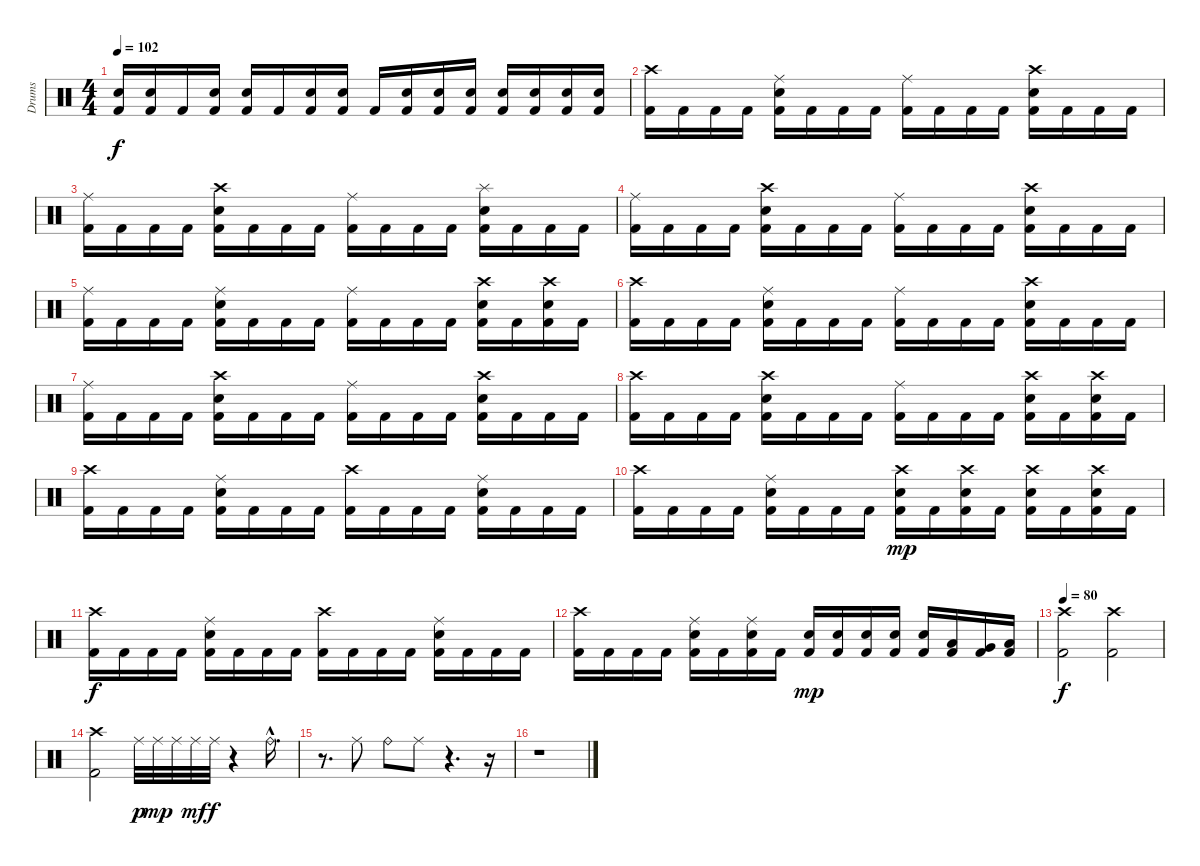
\track ("Drums" "Drums") {instrument percussion}
\staff {score}
\articulation defaults
\ts (4 4)
\tempo 102
\clef neutral
\ks c
("Snare (hit) 2" "Kick (hit) 2").16{dy f} ("Snare (hit) 2" "Kick (hit) 2").16 "Kick (hit) 2".16 ("Snare (hit) 2" "Kick (hit) 2").16 ("Snare (hit) 2" "Kick (hit) 2").16 "Kick (hit) 2".16 ("Snare (hit) 2" "Kick (hit) 2").16 ("Snare (hit) 2" "Kick (hit) 2").16 "Kick (hit) 2".16 ("Snare (hit) 2" "Kick (hit) 2").16 ("Snare (hit) 2" "Kick (hit) 2").16 ("Snare (hit) 2" "Kick (hit) 2").16 ("Snare (hit) 2" "Kick (hit) 2").16 ("Snare (hit) 2" "Kick (hit) 2").16 ("Snare (hit) 2" "Kick (hit) 2").16 ("Snare (hit) 2" "Kick (hit) 2").16 |
("Crash high (hit)" "Kick (hit) 2").16 "Kick (hit) 2".16 "Kick (hit) 2".16 "Kick (hit) 2".16 ("Ride (middle)" "Snare (hit) 2" "Kick (hit) 2").16 "Kick (hit) 2".16 "Kick (hit) 2".16 "Kick (hit) 2".16 ("Ride (middle)" "Kick (hit) 2").16 "Kick (hit) 2".16 "Kick (hit) 2".16 "Kick (hit) 2".16 ("Crash high (hit)" "Snare (hit) 2" "Kick (hit) 2").16 "Kick (hit) 2".16 "Kick (hit) 2".16 "Kick (hit) 2".16 |
("Ride (middle)" "Kick (hit) 2").16 "Kick (hit) 2".16 "Kick (hit) 2".16 "Kick (hit) 2".16 ("Crash high (hit)" "Snare (hit) 2" "Kick (hit) 2").16 "Kick (hit) 2".16 "Kick (hit) 2".16 "Kick (hit) 2".16 ("Ride (middle)" "Kick (hit) 2").16 "Kick (hit) 2".16 "Kick (hit) 2".16 "Kick (hit) 2".16 ("Splash (hit)" "Snare (hit) 2" "Kick (hit) 2").16 "Kick (hit) 2".16 "Kick (hit) 2".16 "Kick (hit) 2".16 |
("Ride (middle)" "Kick (hit) 2").16 "Kick (hit) 2".16 "Kick (hit) 2".16 "Kick (hit) 2".16 ("Crash high (hit)" "Snare (hit) 2" "Kick (hit) 2").16 "Kick (hit) 2".16 "Kick (hit) 2".16 "Kick (hit) 2".16 ("Ride (middle)" "Kick (hit) 2").16 "Kick (hit) 2".16 "Kick (hit) 2".16 "Kick (hit) 2".16 ("Crash high (hit)" "Snare (hit) 2" "Kick (hit) 2").16 "Kick (hit) 2".16 "Kick (hit) 2".16 "Kick (hit) 2".16 |
("Ride (middle)" "Kick (hit) 2").16 "Kick (hit) 2".16 "Kick (hit) 2".16 "Kick (hit) 2".16 ("Ride (middle)" "Snare (hit) 2" "Kick (hit) 2").16 "Kick (hit) 2".16 "Kick (hit) 2".16 "Kick (hit) 2".16 ("Ride (middle)" "Kick (hit) 2").16 "Kick (hit) 2".16 "Kick (hit) 2".16 "Kick (hit) 2".16 ("Crash high (hit)" "Snare (hit) 2" "Kick (hit) 2").16 "Kick (hit) 2".16 ("Crash high (hit)" "Snare (hit) 2" "Kick (hit) 2").16 "Kick (hit) 2".16 |
("Crash high (hit)" "Kick (hit) 2").16 "Kick (hit) 2".16 "Kick (hit) 2".16 "Kick (hit) 2".16 ("Ride (middle)" "Snare (hit) 2" "Kick (hit) 2").16 "Kick (hit) 2".16 "Kick (hit) 2".16 "Kick (hit) 2".16 ("Ride (middle)" "Kick (hit) 2").16 "Kick (hit) 2".16 "Kick (hit) 2".16 "Kick (hit) 2".16 ("Crash high (hit)" "Snare (hit) 2" "Kick (hit) 2").16 "Kick (hit) 2".16 "Kick (hit) 2".16 "Kick (hit) 2".16 |
("Ride (middle)" "Kick (hit) 2").16 "Kick (hit) 2".16 "Kick (hit) 2".16 "Kick (hit) 2".16 ("Crash high (hit)" "Snare (hit) 2" "Kick (hit) 2").16 "Kick (hit) 2".16 "Kick (hit) 2".16 "Kick (hit) 2".16 ("Ride (middle)" "Kick (hit) 2").16 "Kick (hit) 2".16 "Kick (hit) 2".16 "Kick (hit) 2".16 ("Crash high (hit)" "Snare (hit) 2" "Kick (hit) 2").16 "Kick (hit) 2".16 "Kick (hit) 2".16 "Kick (hit) 2".16 |
("Crash high (hit)" "Kick (hit) 2").16 "Kick (hit) 2".16 "Kick (hit) 2".16 "Kick (hit) 2".16 ("Crash high (hit)" "Snare (hit) 2" "Kick (hit) 2").16 "Kick (hit) 2".16 "Kick (hit) 2".16 "Kick (hit) 2".16 ("Ride (middle)" "Kick (hit) 2").16 "Kick (hit) 2".16 "Kick (hit) 2".16 "Kick (hit) 2".16 ("Crash high (hit)" "Snare (hit) 2" "Kick (hit) 2").16 "Kick (hit) 2".16 ("Crash high (hit)" "Snare (hit) 2" "Kick (hit) 2").16 "Kick (hit) 2".16 |
("Crash high (hit)" "Kick (hit) 2").16 "Kick (hit) 2".16 "Kick (hit) 2".16 "Kick (hit) 2".16 ("Ride (middle)" "Snare (hit) 2" "Kick (hit) 2").16 "Kick (hit) 2".16 "Kick (hit) 2".16 "Kick (hit) 2".16 ("Crash high (hit)" "Kick (hit) 2").16 "Kick (hit) 2".16 "Kick (hit) 2".16 "Kick (hit) 2".16 ("Ride (middle)" "Snare (hit) 2" "Kick (hit) 2").16 "Kick (hit) 2".16 "Kick (hit) 2".16 "Kick (hit) 2".16 |
("Crash high (hit)" "Kick (hit) 2").16 "Kick (hit) 2".16 "Kick (hit) 2".16 "Kick (hit) 2".16 ("Ride (middle)" "Snare (hit) 2" "Kick (hit) 2").16 "Kick (hit) 2".16 "Kick (hit) 2".16 "Kick (hit) 2".16 ("Crash high (hit)" "Snare (hit) 2" "Kick (hit) 2").16{dy mp} "Kick (hit) 2".16 ("Crash high (hit)" "Snare (hit) 2" "Kick (hit) 2").16 "Kick (hit) 2".16 ("Crash high (hit)" "Snare (hit) 2" "Kick (hit) 2").16 "Kick (hit) 2".16 ("Crash high (hit)" "Snare (hit) 2" "Kick (hit) 2").16 "Kick (hit) 2".16 |
("Crash high (hit)" "Kick (hit) 2").16{dy f} "Kick (hit) 2".16 "Kick (hit) 2".16 "Kick (hit) 2".16 ("Ride (middle)" "Snare (hit) 2" "Kick (hit) 2").16 "Kick (hit) 2".16 "Kick (hit) 2".16 "Kick (hit) 2".16 ("Crash high (hit)" "Kick (hit) 2").16 "Kick (hit) 2".16 "Kick (hit) 2".16 "Kick (hit) 2".16 ("Ride (middle)" "Snare (hit) 2" "Kick (hit) 2").16 "Kick (hit) 2".16 "Kick (hit) 2".16 "Kick (hit) 2".16 |
("Crash high (hit)" "Kick (hit) 2").16 "Kick (hit) 2".16 "Kick (hit) 2".16 "Kick (hit) 2".16 ("Ride (middle)" "Snare (hit) 2" "Kick (hit) 2").16 "Kick (hit) 2".16 ("Ride (middle)" "Snare (hit) 2" "Kick (hit) 2").16 "Kick (hit) 2".16 ("Snare (hit) 2" "Kick (hit) 2").16{dy mp} ("Snare (hit) 2" "Kick (hit) 2").16 ("Snare (hit) 2" "Kick (hit) 2").16 ("Snare (hit) 2" "Kick (hit) 2").16 ("Snare (hit) 2" "Kick (hit) 2").16 ("Low Tom (hit)" "Kick (hit) 2").16 ("Very Low Tom (hit)" "Kick (hit) 2").16 ("Low Floor Tom (hit)" "Kick (hit) 2").16 |
\tempo 80
("Crash high (hit)" "Kick (hit) 2").2{dy f} ("Crash high (hit)" "Kick (hit) 2").2 |
("Crash high (hit)" "Kick (hit) 2").2 "Ride (middle)".32{dy p} "Ride (middle)".32{dy mp} "Ride (middle)".32 "Ride (middle)".32{dy mf} "Ride (middle)".32{dy f} r.4 "Ride (bell)"{hac}.16{d} |
r.8{d} "Ride (middle)".8 "Ride (bell)".8 "Ride (middle)".8 r.4{d} r.16 |
r.1
